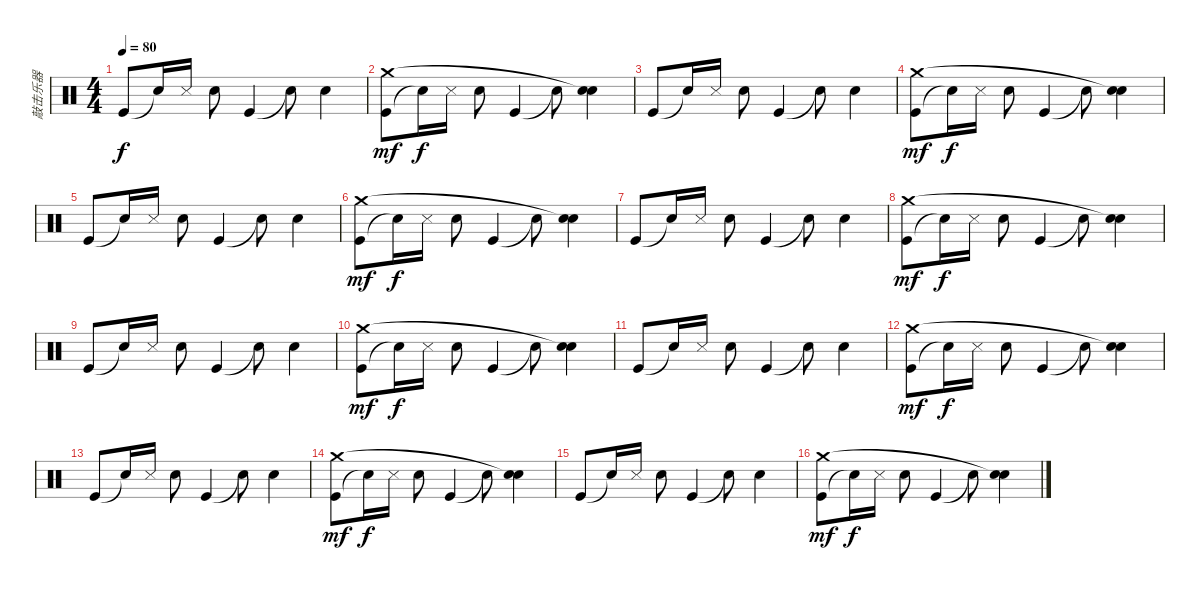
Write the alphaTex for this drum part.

\track ("敲击乐器" "敲击乐器") {instrument percussion}
\staff {score}
\articulation defaults
\ts (4 4)
\tempo 80
\clef neutral
\ks c "Kick (hit)".8{dy f} "Snare (hit)"{t}.16 "Metronome (hit)".16 "Metronome (bell)".8 "Kick (hit)".4 "Snare (hit)"{t}.8 "Metronome (bell)".4
|
("Kick (hit)" "Crash medium (hit)").8{dy mf} "Snare (hit)"{t}.16{dy f} "Metronome (hit)".16 "Metronome (bell)".8 "Kick (hit)".4 "Snare (hit)"{t}.8 ("Metronome (bell)" "Snare (hit)"{t}).4 |
"Kick (hit)".8 "Snare (hit)"{t}.16 "Metronome (hit)".16 "Metronome (bell)".8 "Kick (hit)".4 "Snare (hit)"{t}.8 "Metronome (bell)".4 |
("Kick (hit)" "Crash medium (hit)").8{dy mf} "Snare (hit)"{t}.16{dy f} "Metronome (hit)".16 "Metronome (bell)".8 "Kick (hit)".4 "Snare (hit)"{t}.8 ("Metronome (bell)" "Snare (hit)"{t}).4 |
"Kick (hit)".8 "Snare (hit)"{t}.16 "Metronome (hit)".16 "Metronome (bell)".8 "Kick (hit)".4 "Snare (hit)"{t}.8 "Metronome (bell)".4 |
("Kick (hit)" "Crash medium (hit)").8{dy mf} "Snare (hit)"{t}.16{dy f} "Metronome (hit)".16 "Metronome (bell)".8 "Kick (hit)".4 "Snare (hit)"{t}.8 ("Metronome (bell)" "Snare (hit)"{t}).4 |
"Kick (hit)".8 "Snare (hit)"{t}.16 "Metronome (hit)".16 "Metronome (bell)".8 "Kick (hit)".4 "Snare (hit)"{t}.8 "Metronome (bell)".4 |
("Kick (hit)" "Crash medium (hit)").8{dy mf} "Snare (hit)"{t}.16{dy f} "Metronome (hit)".16 "Metronome (bell)".8 "Kick (hit)".4 "Snare (hit)"{t}.8 ("Metronome (bell)" "Snare (hit)"{t}).4 |
"Kick (hit)".8 "Snare (hit)"{t}.16 "Metronome (hit)".16 "Metronome (bell)".8 "Kick (hit)".4 "Snare (hit)"{t}.8 "Metronome (bell)".4 |
("Kick (hit)" "Crash medium (hit)").8{dy mf} "Snare (hit)"{t}.16{dy f} "Metronome (hit)".16 "Metronome (bell)".8 "Kick (hit)".4 "Snare (hit)"{t}.8 ("Metronome (bell)" "Snare (hit)"{t}).4 |
"Kick (hit)".8 "Snare (hit)"{t}.16 "Metronome (hit)".16 "Metronome (bell)".8 "Kick (hit)".4 "Snare (hit)"{t}.8 "Metronome (bell)".4 |
("Kick (hit)" "Crash medium (hit)").8{dy mf} "Snare (hit)"{t}.16{dy f} "Metronome (hit)".16 "Metronome (bell)".8 "Kick (hit)".4 "Snare (hit)"{t}.8 ("Metronome (bell)" "Snare (hit)"{t}).4 |
"Kick (hit)".8 "Snare (hit)"{t}.16 "Metronome (hit)".16 "Metronome (bell)".8 "Kick (hit)".4 "Snare (hit)"{t}.8 "Metronome (bell)".4 |
("Kick (hit)" "Crash medium (hit)").8{dy mf} "Snare (hit)"{t}.16{dy f} "Metronome (hit)".16 "Metronome (bell)".8 "Kick (hit)".4 "Snare (hit)"{t}.8 ("Metronome (bell)" "Snare (hit)"{t}).4 |
"Kick (hit)".8 "Snare (hit)"{t}.16 "Metronome (hit)".16 "Metronome (bell)".8 "Kick (hit)".4 "Snare (hit)"{t}.8 "Metronome (bell)".4 |
("Kick (hit)" "Crash medium (hit)").8{dy mf} "Snare (hit)"{t}.16{dy f} "Metronome (hit)".16 "Metronome (bell)".8 "Kick (hit)".4 "Snare (hit)"{t}.8 ("Metronome (bell)" "Snare (hit)"{t}).4
